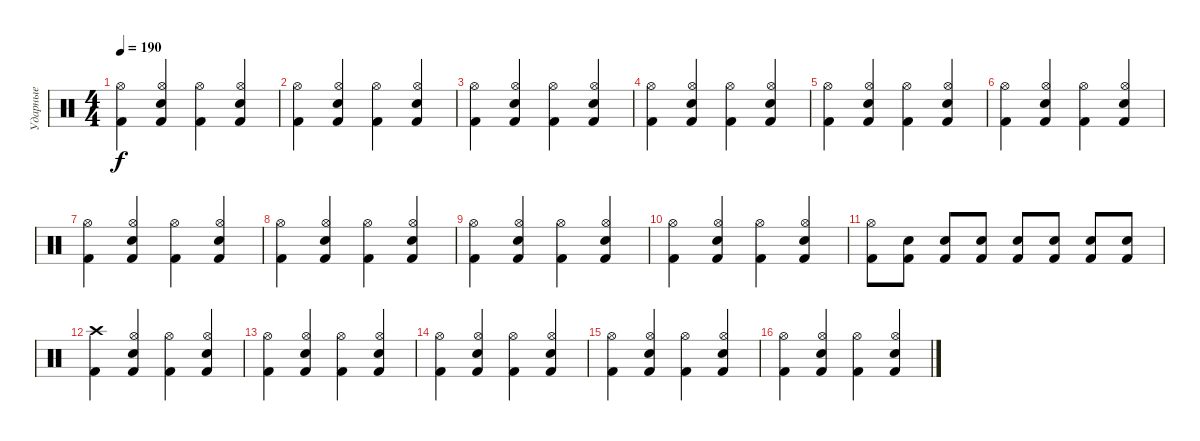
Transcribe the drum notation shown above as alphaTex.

\track ("Ударные" "Ударные") {instrument percussion}
\staff
\articulation defaults
\ts (4 4)
\tempo 190
\clef neutral
\ks c
("Kick (hit) 2" "Hi-Hat (open)").4{dy f} ("Kick (hit) 2" "Snare (hit) 2" "Hi-Hat (open)").4 ("Kick (hit) 2" "Hi-Hat (open)").4 ("Kick (hit) 2" "Snare (hit) 2" "Hi-Hat (open)").4 |
("Kick (hit) 2" "Hi-Hat (open)").4 ("Kick (hit) 2" "Snare (hit) 2" "Hi-Hat (open)").4 ("Kick (hit) 2" "Hi-Hat (open)").4 ("Kick (hit) 2" "Snare (hit) 2" "Hi-Hat (open)").4 |
("Kick (hit) 2" "Hi-Hat (open)").4 ("Kick (hit) 2" "Snare (hit) 2" "Hi-Hat (open)").4 ("Kick (hit) 2" "Hi-Hat (open)").4 ("Kick (hit) 2" "Snare (hit) 2" "Hi-Hat (open)").4 |
("Kick (hit) 2" "Hi-Hat (open)").4 ("Kick (hit) 2" "Snare (hit) 2" "Hi-Hat (open)").4 ("Kick (hit) 2" "Hi-Hat (open)").4 ("Kick (hit) 2" "Snare (hit) 2" "Hi-Hat (open)").4 |
("Kick (hit) 2" "Hi-Hat (open)").4 ("Kick (hit) 2" "Snare (hit) 2" "Hi-Hat (open)").4 ("Kick (hit) 2" "Hi-Hat (open)").4 ("Kick (hit) 2" "Snare (hit) 2" "Hi-Hat (open)").4 |
("Kick (hit) 2" "Hi-Hat (open)").4 ("Kick (hit) 2" "Snare (hit) 2" "Hi-Hat (open)").4 ("Kick (hit) 2" "Hi-Hat (open)").4 ("Kick (hit) 2" "Snare (hit) 2" "Hi-Hat (open)").4 |
("Kick (hit) 2" "Hi-Hat (open)").4 ("Kick (hit) 2" "Snare (hit) 2" "Hi-Hat (open)").4 ("Kick (hit) 2" "Hi-Hat (open)").4 ("Kick (hit) 2" "Snare (hit) 2" "Hi-Hat (open)").4 |
("Kick (hit) 2" "Hi-Hat (open)").4 ("Kick (hit) 2" "Snare (hit) 2" "Hi-Hat (open)").4 ("Kick (hit) 2" "Hi-Hat (open)").4 ("Kick (hit) 2" "Snare (hit) 2" "Hi-Hat (open)").4 |
("Kick (hit) 2" "Hi-Hat (open)").4 ("Kick (hit) 2" "Snare (hit) 2" "Hi-Hat (open)").4 ("Kick (hit) 2" "Hi-Hat (open)").4 ("Kick (hit) 2" "Snare (hit) 2" "Hi-Hat (open)").4 |
("Kick (hit) 2" "Hi-Hat (open)").4 ("Kick (hit) 2" "Snare (hit) 2" "Hi-Hat (open)").4 ("Kick (hit) 2" "Hi-Hat (open)").4 ("Kick (hit) 2" "Snare (hit) 2" "Hi-Hat (open)").4 |
("Kick (hit) 2" "Hi-Hat (open)").8 ("Kick (hit) 2" "Snare (hit) 2").8 ("Kick (hit) 2" "Snare (hit) 2").8 ("Kick (hit) 2" "Snare (hit) 2").8 ("Kick (hit) 2" "Snare (hit) 2").8 ("Kick (hit) 2" "Snare (hit) 2").8 ("Kick (hit) 2" "Snare (hit) 2").8 ("Kick (hit) 2" "Snare (hit) 2").8 |
("Kick (hit) 2" "Crash high (hit)").4 ("Kick (hit) 2" "Snare (hit) 2" "Hi-Hat (open)").4 ("Kick (hit) 2" "Hi-Hat (open)").4 ("Kick (hit) 2" "Snare (hit) 2" "Hi-Hat (open)").4 |
("Kick (hit) 2" "Hi-Hat (open)").4 ("Kick (hit) 2" "Snare (hit) 2" "Hi-Hat (open)").4 ("Kick (hit) 2" "Hi-Hat (open)").4 ("Kick (hit) 2" "Snare (hit) 2" "Hi-Hat (open)").4 |
("Kick (hit) 2" "Hi-Hat (open)").4 ("Kick (hit) 2" "Snare (hit) 2" "Hi-Hat (open)").4 ("Kick (hit) 2" "Hi-Hat (open)").4 ("Kick (hit) 2" "Snare (hit) 2" "Hi-Hat (open)").4 |
("Kick (hit) 2" "Hi-Hat (open)").4 ("Kick (hit) 2" "Snare (hit) 2" "Hi-Hat (open)").4 ("Kick (hit) 2" "Hi-Hat (open)").4 ("Kick (hit) 2" "Snare (hit) 2" "Hi-Hat (open)").4 |
("Kick (hit) 2" "Hi-Hat (open)").4 ("Kick (hit) 2" "Snare (hit) 2" "Hi-Hat (open)").4 ("Kick (hit) 2" "Hi-Hat (open)").4 ("Kick (hit) 2" "Snare (hit) 2" "Hi-Hat (open)").4
